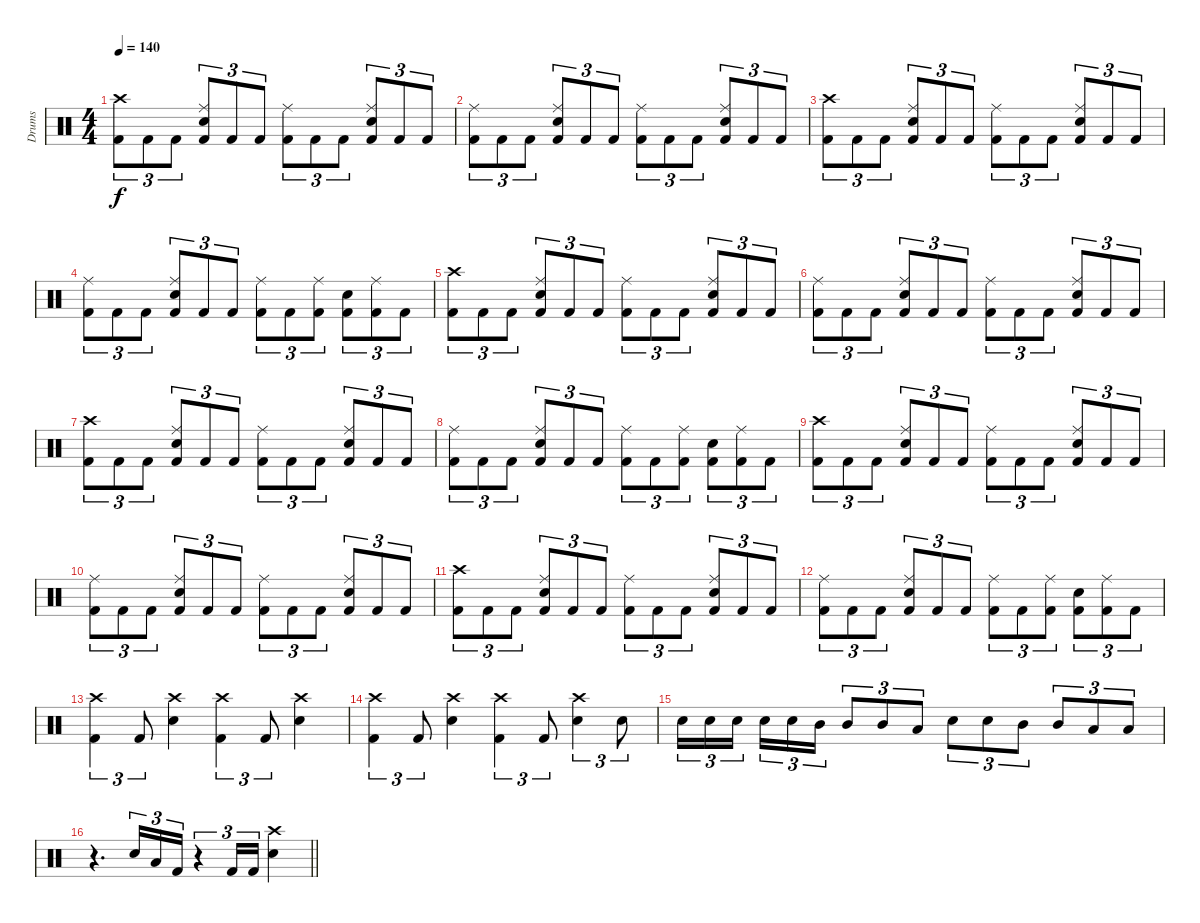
\track ("Drums" "Drums") {instrument percussion}
\staff {score}
\articulation defaults
\ts (4 4)
\tempo 140
\clef neutral
\ks c
("Crash high (hit)" "Kick (hit) 2").8{tu (3 2) dy f} "Kick (hit) 2".8{tu (3 2)} "Kick (hit) 2".8{tu (3 2)} ("Ride (middle)" "Snare (hit) 2" "Kick (hit) 2").8{tu (3 2)} "Kick (hit) 2".8{tu (3 2)} "Kick (hit) 2".8{tu (3 2)} ("Ride (middle)" "Kick (hit) 2").8{tu (3 2)} "Kick (hit) 2".8{tu (3 2)} "Kick (hit) 2".8{tu (3 2)} ("Ride (middle)" "Snare (hit) 2" "Kick (hit) 2").8{tu (3 2)} "Kick (hit) 2".8{tu (3 2)} "Kick (hit) 2".8{tu (3 2)} |
("Ride (middle)" "Kick (hit) 2").8{tu (3 2)} "Kick (hit) 2".8{tu (3 2)} "Kick (hit) 2".8{tu (3 2)} ("Ride (middle)" "Snare (hit) 2" "Kick (hit) 2").8{tu (3 2)} "Kick (hit) 2".8{tu (3 2)} "Kick (hit) 2".8{tu (3 2)} ("Ride (middle)" "Kick (hit) 2").8{tu (3 2)} "Kick (hit) 2".8{tu (3 2)} "Kick (hit) 2".8{tu (3 2)} ("Ride (middle)" "Snare (hit) 2" "Kick (hit) 2").8{tu (3 2)} "Kick (hit) 2".8{tu (3 2)} "Kick (hit) 2".8{tu (3 2)} |
("Crash high (hit)" "Kick (hit) 2").8{tu (3 2)} "Kick (hit) 2".8{tu (3 2)} "Kick (hit) 2".8{tu (3 2)} ("Ride (middle)" "Snare (hit) 2" "Kick (hit) 2").8{tu (3 2)} "Kick (hit) 2".8{tu (3 2)} "Kick (hit) 2".8{tu (3 2)} ("Ride (middle)" "Kick (hit) 2").8{tu (3 2)} "Kick (hit) 2".8{tu (3 2)} "Kick (hit) 2".8{tu (3 2)} ("Ride (middle)" "Snare (hit) 2" "Kick (hit) 2").8{tu (3 2)} "Kick (hit) 2".8{tu (3 2)} "Kick (hit) 2".8{tu (3 2)} |
("Ride (middle)" "Kick (hit) 2").8{tu (3 2)} "Kick (hit) 2".8{tu (3 2)} "Kick (hit) 2".8{tu (3 2)} ("Ride (middle)" "Snare (hit) 2" "Kick (hit) 2").8{tu (3 2)} "Kick (hit) 2".8{tu (3 2)} "Kick (hit) 2".8{tu (3 2)} ("Ride (middle)" "Kick (hit) 2").8{tu (3 2)} "Kick (hit) 2".8{tu (3 2)} ("Ride (middle)" "Kick (hit) 2").8{tu (3 2)} ("Snare (hit) 2" "Kick (hit) 2").8{tu (3 2)} ("Ride (middle)" "Kick (hit) 2").8{tu (3 2)} "Kick (hit) 2".8{tu (3 2)} |
("Crash high (hit)" "Kick (hit) 2").8{tu (3 2)} "Kick (hit) 2".8{tu (3 2)} "Kick (hit) 2".8{tu (3 2)} ("Ride (middle)" "Snare (hit) 2" "Kick (hit) 2").8{tu (3 2)} "Kick (hit) 2".8{tu (3 2)} "Kick (hit) 2".8{tu (3 2)} ("Ride (middle)" "Kick (hit) 2").8{tu (3 2)} "Kick (hit) 2".8{tu (3 2)} "Kick (hit) 2".8{tu (3 2)} ("Ride (middle)" "Snare (hit) 2" "Kick (hit) 2").8{tu (3 2)} "Kick (hit) 2".8{tu (3 2)} "Kick (hit) 2".8{tu (3 2)} |
("Ride (middle)" "Kick (hit) 2").8{tu (3 2)} "Kick (hit) 2".8{tu (3 2)} "Kick (hit) 2".8{tu (3 2)} ("Ride (middle)" "Snare (hit) 2" "Kick (hit) 2").8{tu (3 2)} "Kick (hit) 2".8{tu (3 2)} "Kick (hit) 2".8{tu (3 2)} ("Ride (middle)" "Kick (hit) 2").8{tu (3 2)} "Kick (hit) 2".8{tu (3 2)} "Kick (hit) 2".8{tu (3 2)} ("Ride (middle)" "Snare (hit) 2" "Kick (hit) 2").8{tu (3 2)} "Kick (hit) 2".8{tu (3 2)} "Kick (hit) 2".8{tu (3 2)} |
("Crash high (hit)" "Kick (hit) 2").8{tu (3 2)} "Kick (hit) 2".8{tu (3 2)} "Kick (hit) 2".8{tu (3 2)} ("Ride (middle)" "Snare (hit) 2" "Kick (hit) 2").8{tu (3 2)} "Kick (hit) 2".8{tu (3 2)} "Kick (hit) 2".8{tu (3 2)} ("Ride (middle)" "Kick (hit) 2").8{tu (3 2)} "Kick (hit) 2".8{tu (3 2)} "Kick (hit) 2".8{tu (3 2)} ("Ride (middle)" "Snare (hit) 2" "Kick (hit) 2").8{tu (3 2)} "Kick (hit) 2".8{tu (3 2)} "Kick (hit) 2".8{tu (3 2)} |
("Ride (middle)" "Kick (hit) 2").8{tu (3 2)} "Kick (hit) 2".8{tu (3 2)} "Kick (hit) 2".8{tu (3 2)} ("Ride (middle)" "Snare (hit) 2" "Kick (hit) 2").8{tu (3 2)} "Kick (hit) 2".8{tu (3 2)} "Kick (hit) 2".8{tu (3 2)} ("Ride (middle)" "Kick (hit) 2").8{tu (3 2)} "Kick (hit) 2".8{tu (3 2)} ("Ride (middle)" "Kick (hit) 2").8{tu (3 2)} ("Snare (hit) 2" "Kick (hit) 2").8{tu (3 2)} ("Ride (middle)" "Kick (hit) 2").8{tu (3 2)} "Kick (hit) 2".8{tu (3 2)} |
("Crash high (hit)" "Kick (hit) 2").8{tu (3 2)} "Kick (hit) 2".8{tu (3 2)} "Kick (hit) 2".8{tu (3 2)} ("Ride (middle)" "Snare (hit) 2" "Kick (hit) 2").8{tu (3 2)} "Kick (hit) 2".8{tu (3 2)} "Kick (hit) 2".8{tu (3 2)} ("Ride (middle)" "Kick (hit) 2").8{tu (3 2)} "Kick (hit) 2".8{tu (3 2)} "Kick (hit) 2".8{tu (3 2)} ("Ride (middle)" "Snare (hit) 2" "Kick (hit) 2").8{tu (3 2)} "Kick (hit) 2".8{tu (3 2)} "Kick (hit) 2".8{tu (3 2)} |
("Ride (middle)" "Kick (hit) 2").8{tu (3 2)} "Kick (hit) 2".8{tu (3 2)} "Kick (hit) 2".8{tu (3 2)} ("Ride (middle)" "Snare (hit) 2" "Kick (hit) 2").8{tu (3 2)} "Kick (hit) 2".8{tu (3 2)} "Kick (hit) 2".8{tu (3 2)} ("Ride (middle)" "Kick (hit) 2").8{tu (3 2)} "Kick (hit) 2".8{tu (3 2)} "Kick (hit) 2".8{tu (3 2)} ("Ride (middle)" "Snare (hit) 2" "Kick (hit) 2").8{tu (3 2)} "Kick (hit) 2".8{tu (3 2)} "Kick (hit) 2".8{tu (3 2)} |
("Crash high (hit)" "Kick (hit) 2").8{tu (3 2)} "Kick (hit) 2".8{tu (3 2)} "Kick (hit) 2".8{tu (3 2)} ("Ride (middle)" "Snare (hit) 2" "Kick (hit) 2").8{tu (3 2)} "Kick (hit) 2".8{tu (3 2)} "Kick (hit) 2".8{tu (3 2)} ("Ride (middle)" "Kick (hit) 2").8{tu (3 2)} "Kick (hit) 2".8{tu (3 2)} "Kick (hit) 2".8{tu (3 2)} ("Ride (middle)" "Snare (hit) 2" "Kick (hit) 2").8{tu (3 2)} "Kick (hit) 2".8{tu (3 2)} "Kick (hit) 2".8{tu (3 2)} |
("Ride (middle)" "Kick (hit) 2").8{tu (3 2)} "Kick (hit) 2".8{tu (3 2)} "Kick (hit) 2".8{tu (3 2)} ("Ride (middle)" "Snare (hit) 2" "Kick (hit) 2").8{tu (3 2)} "Kick (hit) 2".8{tu (3 2)} "Kick (hit) 2".8{tu (3 2)} ("Ride (middle)" "Kick (hit) 2").8{tu (3 2)} "Kick (hit) 2".8{tu (3 2)} ("Ride (middle)" "Kick (hit) 2").8{tu (3 2)} ("Snare (hit) 2" "Kick (hit) 2").8{tu (3 2)} ("Ride (middle)" "Kick (hit) 2").8{tu (3 2)} "Kick (hit) 2".8{tu (3 2)} |
("Crash high (hit)" "Kick (hit) 2").4{tu (3 2)} "Kick (hit) 2".8{tu (3 2)} ("Crash high (hit)" "Snare (hit) 2").4 ("Crash high (hit)" "Kick (hit) 2").4{tu (3 2)} "Kick (hit) 2".8{tu (3 2)} ("Crash high (hit)" "Snare (hit) 2").4 |
("Crash high (hit)" "Kick (hit) 2").4{tu (3 2)} "Kick (hit) 2".8{tu (3 2)} ("Crash high (hit)" "Snare (hit) 2").4 ("Crash high (hit)" "Kick (hit) 2").4{tu (3 2)} "Kick (hit) 2".8{tu (3 2)} ("Crash high (hit)" "Snare (hit) 2").4{tu (3 2)} "Snare (hit) 2".8{tu (3 2)} |
"Snare (hit) 2".16{tu (3 2)} "Snare (hit) 2".16{tu (3 2)} "Snare (hit) 2".16{tu (3 2) beam splitsecondary} "Snare (hit) 2".16{tu (3 2)} "Snare (hit) 2".16{tu (3 2)} "Mid Tom (hit)".16{tu (3 2)} "Mid Tom (hit)".8{tu (3 2)} "Mid Tom (hit)".8{tu (3 2)} "Low Tom (hit)".8{tu (3 2)} "Snare (hit) 2".8{tu (3 2)} "Snare (hit) 2".8{tu (3 2)} "Mid Tom (hit)".8{tu (3 2)} "Mid Tom (hit)".8{tu (3 2)} "Low Tom (hit)".8{tu (3 2)} "Low Tom (hit)".8{tu (3 2)} |
\barLineRight lightlight
r.4{d} "Snare (hit) 2".16{tu (3 2)} "Low Floor Tom (hit)".16{tu (3 2)} "Kick (hit) 2".16{tu (3 2)} r.4{tu (3 2)} "Kick (hit) 2".16{tu (3 2)} "Kick (hit) 2".16{tu (3 2)} ("Crash high (hit)" "Snare (hit) 2").4
